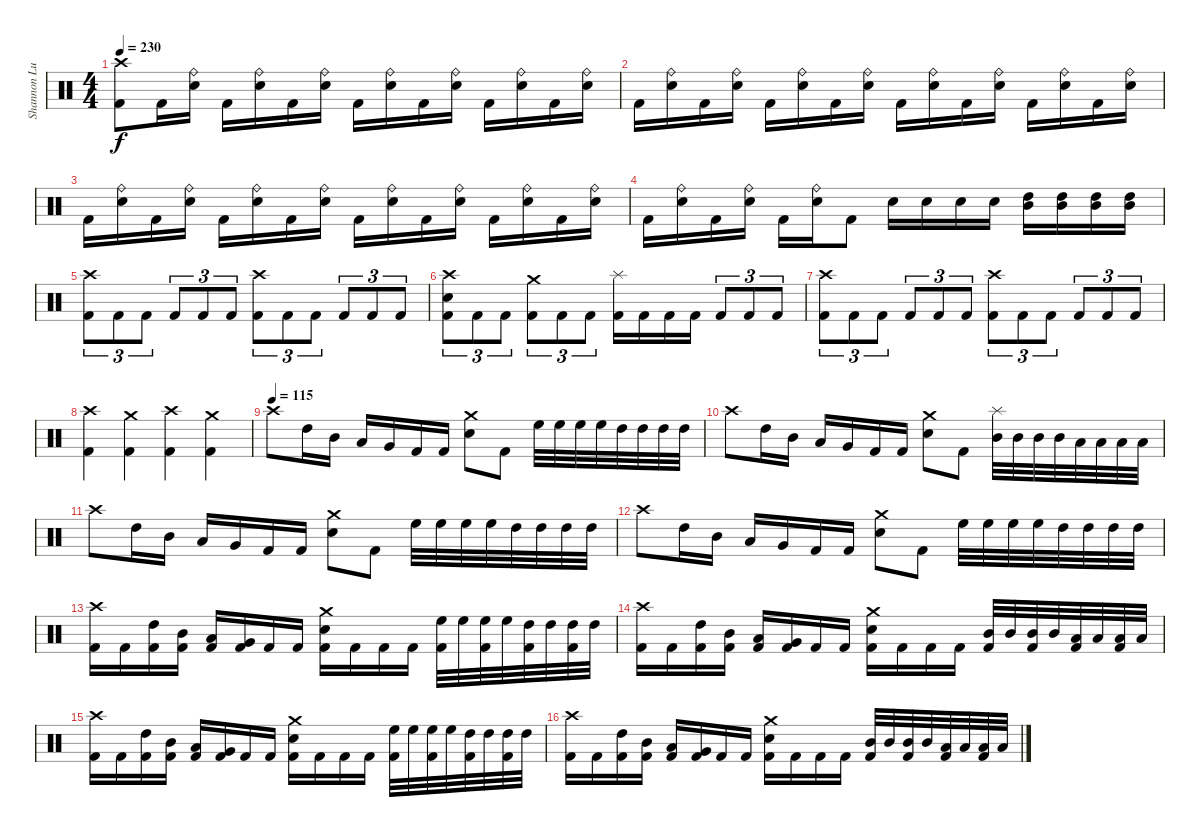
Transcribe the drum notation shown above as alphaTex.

\track ("Shannon Lucas" "Shannon Lu") {instrument percussion}
\staff {score}
\articulation defaults
\ts (4 4)
\tempo 230
\clef neutral
\ks c
("Crash high (hit)" "Kick (hit) 2").8{dy f} "Kick (hit) 2".16 ("Ride (bell)" "Electric Snare (hit)").16 "Kick (hit) 2".16 ("Ride (bell)" "Electric Snare (hit)").16 "Kick (hit) 2".16 ("Ride (bell)" "Electric Snare (hit)").16 "Kick (hit) 2".16 ("Ride (bell)" "Electric Snare (hit)").16 "Kick (hit) 2".16 ("Ride (bell)" "Electric Snare (hit)").16 "Kick (hit) 2".16 ("Ride (bell)" "Electric Snare (hit)").16 "Kick (hit) 2".16 ("Ride (bell)" "Electric Snare (hit)").16 |
"Kick (hit) 2".16 ("Ride (bell)" "Electric Snare (hit)").16 "Kick (hit) 2".16 ("Ride (bell)" "Electric Snare (hit)").16 "Kick (hit) 2".16 ("Ride (bell)" "Electric Snare (hit)").16 "Kick (hit) 2".16 ("Ride (bell)" "Electric Snare (hit)").16 "Kick (hit) 2".16 ("Ride (bell)" "Electric Snare (hit)").16 "Kick (hit) 2".16 ("Ride (bell)" "Electric Snare (hit)").16 "Kick (hit) 2".16 ("Ride (bell)" "Electric Snare (hit)").16 "Kick (hit) 2".16 ("Ride (bell)" "Electric Snare (hit)").16 |
"Kick (hit) 2".16 ("Ride (bell)" "Electric Snare (hit)").16 "Kick (hit) 2".16 ("Ride (bell)" "Electric Snare (hit)").16 "Kick (hit) 2".16 ("Ride (bell)" "Electric Snare (hit)").16 "Kick (hit) 2".16 ("Ride (bell)" "Electric Snare (hit)").16 "Kick (hit) 2".16 ("Ride (bell)" "Electric Snare (hit)").16 "Kick (hit) 2".16 ("Ride (bell)" "Electric Snare (hit)").16 "Kick (hit) 2".16 ("Ride (bell)" "Electric Snare (hit)").16 "Kick (hit) 2".16 ("Ride (bell)" "Electric Snare (hit)").16 |
"Kick (hit) 2".16 ("Ride (bell)" "Electric Snare (hit)").16 "Kick (hit) 2".16 ("Ride (bell)" "Electric Snare (hit)").16 "Kick (hit) 2".16 ("Ride (bell)" "Electric Snare (hit)").16 "Kick (hit) 2".8 "Electric Snare (hit)".16 "Electric Snare (hit)".16 "Electric Snare (hit)".16 "Electric Snare (hit)".16 ("High Tom (hit)" "Mid Tom (hit)").16 ("High Tom (hit)" "Mid Tom (hit)").16 ("High Tom (hit)" "Mid Tom (hit)").16 ("High Tom (hit)" "Mid Tom (hit)").16 |
("Crash high (hit)" "Kick (hit) 2").8{tu (3 2)} "Kick (hit) 2".8{tu (3 2)} "Kick (hit) 2".8{tu (3 2)} "Kick (hit) 2".8{tu (3 2)} "Kick (hit) 2".8{tu (3 2)} "Kick (hit) 2".8{tu (3 2)} ("Crash high (hit)" "Kick (hit) 2").8{tu (3 2)} "Kick (hit) 2".8{tu (3 2)} "Kick (hit) 2".8{tu (3 2)} "Kick (hit) 2".8{tu (3 2)} "Kick (hit) 2".8{tu (3 2)} "Kick (hit) 2".8{tu (3 2)} |
("Crash high (hit)" "Electric Snare (hit)" "Kick (hit) 2").8{tu (3 2)} "Kick (hit) 2".8{tu (3 2)} "Kick (hit) 2".8{tu (3 2)} ("Crash medium (hit)" "Kick (hit) 2").8{tu (3 2)} "Kick (hit) 2".8{tu (3 2)} "Kick (hit) 2".8{tu (3 2)} ("Splash (hit)" "Kick (hit) 2").16 "Kick (hit) 2".16 "Kick (hit) 2".16 "Kick (hit) 2".16 "Kick (hit) 2".8{tu (3 2)} "Kick (hit) 2".8{tu (3 2)} "Kick (hit) 2".8{tu (3 2)} |
("Crash high (hit)" "Kick (hit) 2").8{tu (3 2)} "Kick (hit) 2".8{tu (3 2)} "Kick (hit) 2".8{tu (3 2)} "Kick (hit) 2".8{tu (3 2)} "Kick (hit) 2".8{tu (3 2)} "Kick (hit) 2".8{tu (3 2)} ("Crash high (hit)" "Kick (hit) 2").8{tu (3 2)} "Kick (hit) 2".8{tu (3 2)} "Kick (hit) 2".8{tu (3 2)} "Kick (hit) 2".8{tu (3 2)} "Kick (hit) 2".8{tu (3 2)} "Kick (hit) 2".8{tu (3 2)} |
("Crash high (hit)" "Kick (hit) 2").4 ("Crash medium (hit)" "Kick (hit) 2").4 ("Crash high (hit)" "Kick (hit) 2").4 ("Crash medium (hit)" "Kick (hit) 2").4 |
\tempo (115)
"Crash high (hit)".8 "High Tom (hit)".16 "Mid Tom (hit)".16 "Low Tom (hit)".16 "Very Low Tom (hit)".16 "Kick (hit) 2".16 "Kick (hit) 2".16 ("Crash medium (hit)" "Electric Snare (hit)").8 "Kick (hit) 2".8 "High Floor Tom (hit)".32 "High Floor Tom (hit)".32 "High Floor Tom (hit)".32 "High Floor Tom (hit)".32 "High Tom (hit)".32 "High Tom (hit)".32 "High Tom (hit)".32 "High Tom (hit)".32 |
"Crash high (hit)".8 "High Tom (hit)".16 "Mid Tom (hit)".16 "Low Tom (hit)".16 "Very Low Tom (hit)".16 "Kick (hit) 2".16 "Kick (hit) 2".16 ("Crash medium (hit)" "Electric Snare (hit)").8 "Kick (hit) 2".8 ("Splash (hit)" "Mid Tom (hit)").32 "Mid Tom (hit)".32 "Mid Tom (hit)".32 "Mid Tom (hit)".32 "Low Tom (hit)".32 "Low Tom (hit)".32 "Low Tom (hit)".32 "Low Tom (hit)".32 |
"Crash high (hit)".8 "High Tom (hit)".16 "Mid Tom (hit)".16 "Low Tom (hit)".16 "Very Low Tom (hit)".16 "Kick (hit) 2".16 "Kick (hit) 2".16 ("Crash medium (hit)" "Electric Snare (hit)").8 "Kick (hit) 2".8 "High Floor Tom (hit)".32 "High Floor Tom (hit)".32 "High Floor Tom (hit)".32 "High Floor Tom (hit)".32 "High Tom (hit)".32 "High Tom (hit)".32 "High Tom (hit)".32 "High Tom (hit)".32 |
"Crash high (hit)".8 "High Tom (hit)".16 "Mid Tom (hit)".16 "Low Tom (hit)".16 "Very Low Tom (hit)".16 "Kick (hit) 2".16 "Kick (hit) 2".16 ("Crash medium (hit)" "Electric Snare (hit)").8 "Kick (hit) 2".8 "High Floor Tom (hit)".32 "High Floor Tom (hit)".32 "High Floor Tom (hit)".32 "High Floor Tom (hit)".32 "High Tom (hit)".32 "High Tom (hit)".32 "High Tom (hit)".32 "High Tom (hit)".32 |
("Crash high (hit)" "Kick (hit) 2").16 "Kick (hit) 2".16 ("High Tom (hit)" "Kick (hit) 2").16 ("Mid Tom (hit)" "Kick (hit) 2").16 ("Low Tom (hit)" "Kick (hit) 2").16 ("Very Low Tom (hit)" "Kick (hit) 2").16 "Kick (hit) 2".16 "Kick (hit) 2".16 ("Crash medium (hit)" "Electric Snare (hit)" "Kick (hit) 2").16 "Kick (hit) 2".16 "Kick (hit) 2".16 "Kick (hit) 2".16 ("High Floor Tom (hit)" "Kick (hit) 2").32 "High Floor Tom (hit)".32 ("High Floor Tom (hit)" "Kick (hit) 2").32 "High Floor Tom (hit)".32 ("High Tom (hit)" "Kick (hit) 2").32 "High Tom (hit)".32 ("High Tom (hit)" "Kick (hit) 2").32 "High Tom (hit)".32 |
("Crash high (hit)" "Kick (hit) 2").16 "Kick (hit) 2".16 ("High Tom (hit)" "Kick (hit) 2").16 ("Mid Tom (hit)" "Kick (hit) 2").16 ("Low Tom (hit)" "Kick (hit) 2").16 ("Very Low Tom (hit)" "Kick (hit) 2").16 "Kick (hit) 2".16 "Kick (hit) 2".16 ("Crash medium (hit)" "Electric Snare (hit)" "Kick (hit) 2").16 "Kick (hit) 2".16 "Kick (hit) 2".16 "Kick (hit) 2".16 ("Mid Tom (hit)" "Kick (hit) 2").32 "Mid Tom (hit)".32 ("Mid Tom (hit)" "Kick (hit) 2").32 "Mid Tom (hit)".32 ("Low Tom (hit)" "Kick (hit) 2").32 "Low Tom (hit)".32 ("Low Tom (hit)" "Kick (hit) 2").32 "Low Tom (hit)".32 |
("Crash high (hit)" "Kick (hit) 2").16 "Kick (hit) 2".16 ("High Tom (hit)" "Kick (hit) 2").16 ("Mid Tom (hit)" "Kick (hit) 2").16 ("Low Tom (hit)" "Kick (hit) 2").16 ("Very Low Tom (hit)" "Kick (hit) 2").16 "Kick (hit) 2".16 "Kick (hit) 2".16 ("Crash medium (hit)" "Electric Snare (hit)" "Kick (hit) 2").16 "Kick (hit) 2".16 "Kick (hit) 2".16 "Kick (hit) 2".16 ("High Floor Tom (hit)" "Kick (hit) 2").32 "High Floor Tom (hit)".32 ("High Floor Tom (hit)" "Kick (hit) 2").32 "High Floor Tom (hit)".32 ("High Tom (hit)" "Kick (hit) 2").32 "High Tom (hit)".32 ("High Tom (hit)" "Kick (hit) 2").32 "High Tom (hit)".32 |
("Crash high (hit)" "Kick (hit) 2").16 "Kick (hit) 2".16 ("High Tom (hit)" "Kick (hit) 2").16 ("Mid Tom (hit)" "Kick (hit) 2").16 ("Low Tom (hit)" "Kick (hit) 2").16 ("Very Low Tom (hit)" "Kick (hit) 2").16 "Kick (hit) 2".16 "Kick (hit) 2".16 ("Crash medium (hit)" "Electric Snare (hit)" "Kick (hit) 2").16 "Kick (hit) 2".16 "Kick (hit) 2".16 "Kick (hit) 2".16 ("Mid Tom (hit)" "Kick (hit) 2").32 "Mid Tom (hit)".32 ("Mid Tom (hit)" "Kick (hit) 2").32 "Mid Tom (hit)".32 ("Low Tom (hit)" "Kick (hit) 2").32 "Low Tom (hit)".32 ("Low Tom (hit)" "Kick (hit) 2").32 "Low Tom (hit)".32
